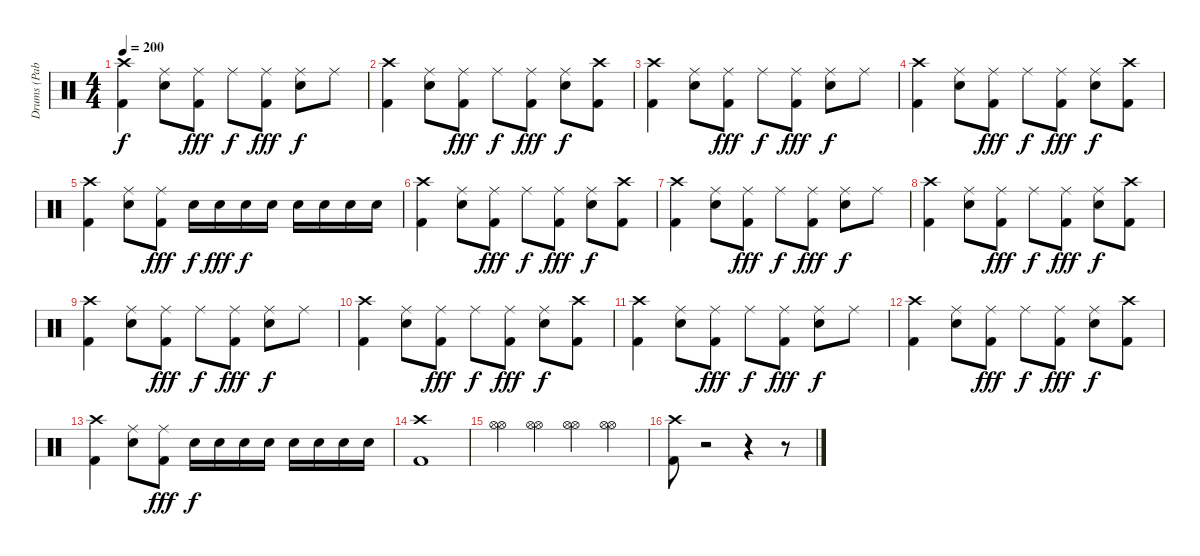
\track ("Drums (Pablo)" "Drums (Pab") {instrument percussion}
\staff {score}
\articulation defaults
\ts (4 4)
\tempo 200
\clef neutral
\ks c
("Crash high (hit)" "Kick (hit) 2").4{dy f} ("Ride (middle)" "Electric Snare (hit)").8 ("Ride (middle)" "Kick (hit) 2").8{dy fff} "Ride (middle)".8{dy f} ("Ride (middle)" "Kick (hit) 2").8{dy fff} ("Ride (middle)" "Electric Snare (hit)").8{dy f} "Ride (middle)".8 |
("Crash high (hit)" "Kick (hit) 2").4 ("Ride (middle)" "Electric Snare (hit)").8 ("Ride (middle)" "Kick (hit) 2").8{dy fff} "Ride (middle)".8{dy f} ("Ride (middle)" "Kick (hit) 2").8{dy fff} ("Ride (middle)" "Electric Snare (hit)").8{dy f} ("Crash high (hit)" "Kick (hit) 2").8 |
("Crash high (hit)" "Kick (hit) 2").4 ("Ride (middle)" "Electric Snare (hit)").8 ("Ride (middle)" "Kick (hit) 2").8{dy fff} "Ride (middle)".8{dy f} ("Ride (middle)" "Kick (hit) 2").8{dy fff} ("Ride (middle)" "Electric Snare (hit)").8{dy f} "Ride (middle)".8 |
("Crash high (hit)" "Kick (hit) 2").4 ("Ride (middle)" "Electric Snare (hit)").8 ("Ride (middle)" "Kick (hit) 2").8{dy fff} "Ride (middle)".8{dy f} ("Ride (middle)" "Kick (hit) 2").8{dy fff} ("Ride (middle)" "Electric Snare (hit)").8{dy f} ("Crash high (hit)" "Kick (hit) 2").8 |
("Crash high (hit)" "Kick (hit) 2").4 ("Ride (middle)" "Electric Snare (hit)").8 ("Ride (middle)" "Kick (hit) 2").8{dy fff} "Electric Snare (hit)".16{dy f} "Electric Snare (hit)".16{dy fff} "Electric Snare (hit)".16{dy f} "Electric Snare (hit)".16 "Electric Snare (hit)".16 "Electric Snare (hit)".16 "Electric Snare (hit)".16 "Electric Snare (hit)".16 |
("Crash high (hit)" "Kick (hit) 2").4 ("Ride (middle)" "Electric Snare (hit)").8 ("Ride (middle)" "Kick (hit) 2").8{dy fff} "Ride (middle)".8{dy f} ("Ride (middle)" "Kick (hit) 2").8{dy fff} ("Ride (middle)" "Electric Snare (hit)").8{dy f} ("Crash high (hit)" "Kick (hit) 2").8 |
("Crash high (hit)" "Kick (hit) 2").4 ("Ride (middle)" "Electric Snare (hit)").8 ("Ride (middle)" "Kick (hit) 2").8{dy fff} "Ride (middle)".8{dy f} ("Ride (middle)" "Kick (hit) 2").8{dy fff} ("Ride (middle)" "Electric Snare (hit)").8{dy f} "Ride (middle)".8 |
("Crash high (hit)" "Kick (hit) 2").4 ("Ride (middle)" "Electric Snare (hit)").8 ("Ride (middle)" "Kick (hit) 2").8{dy fff} "Ride (middle)".8{dy f} ("Ride (middle)" "Kick (hit) 2").8{dy fff} ("Ride (middle)" "Electric Snare (hit)").8{dy f} ("Crash high (hit)" "Kick (hit) 2").8 |
("Crash high (hit)" "Kick (hit) 2").4 ("Ride (middle)" "Electric Snare (hit)").8 ("Ride (middle)" "Kick (hit) 2").8{dy fff} "Ride (middle)".8{dy f} ("Ride (middle)" "Kick (hit) 2").8{dy fff} ("Ride (middle)" "Electric Snare (hit)").8{dy f} "Ride (middle)".8 |
("Crash high (hit)" "Kick (hit) 2").4 ("Ride (middle)" "Electric Snare (hit)").8 ("Ride (middle)" "Kick (hit) 2").8{dy fff} "Ride (middle)".8{dy f} ("Ride (middle)" "Kick (hit) 2").8{dy fff} ("Ride (middle)" "Electric Snare (hit)").8{dy f} ("Crash high (hit)" "Kick (hit) 2").8 |
("Crash high (hit)" "Kick (hit) 2").4 ("Ride (middle)" "Electric Snare (hit)").8 ("Ride (middle)" "Kick (hit) 2").8{dy fff} "Ride (middle)".8{dy f} ("Ride (middle)" "Kick (hit) 2").8{dy fff} ("Ride (middle)" "Electric Snare (hit)").8{dy f} "Ride (middle)".8 |
("Crash high (hit)" "Kick (hit) 2").4 ("Ride (middle)" "Electric Snare (hit)").8 ("Ride (middle)" "Kick (hit) 2").8{dy fff} "Ride (middle)".8{dy f} ("Ride (middle)" "Kick (hit) 2").8{dy fff} ("Ride (middle)" "Electric Snare (hit)").8{dy f} ("Crash high (hit)" "Kick (hit) 2").8 |
("Crash high (hit)" "Kick (hit) 2").4 ("Ride (middle)" "Electric Snare (hit)").8 ("Ride (middle)" "Kick (hit) 2").8{dy fff} "Electric Snare (hit)".16{dy f} "Electric Snare (hit)".16 "Electric Snare (hit)".16 "Electric Snare (hit)".16 "Electric Snare (hit)".16 "Electric Snare (hit)".16 "Electric Snare (hit)".16 "Electric Snare (hit)".16 |
("Crash high (hit)" "Kick (hit) 2").1 |
("Hi-Hat (open)" "Hi-Hat (open)").4 ("Hi-Hat (open)" "Hi-Hat (open)").4 ("Hi-Hat (open)" "Hi-Hat (open)").4 ("Hi-Hat (open)" "Hi-Hat (open)").4 |
("Crash high (hit)" "Kick (hit) 2").8 r.2 r.4 r.8
